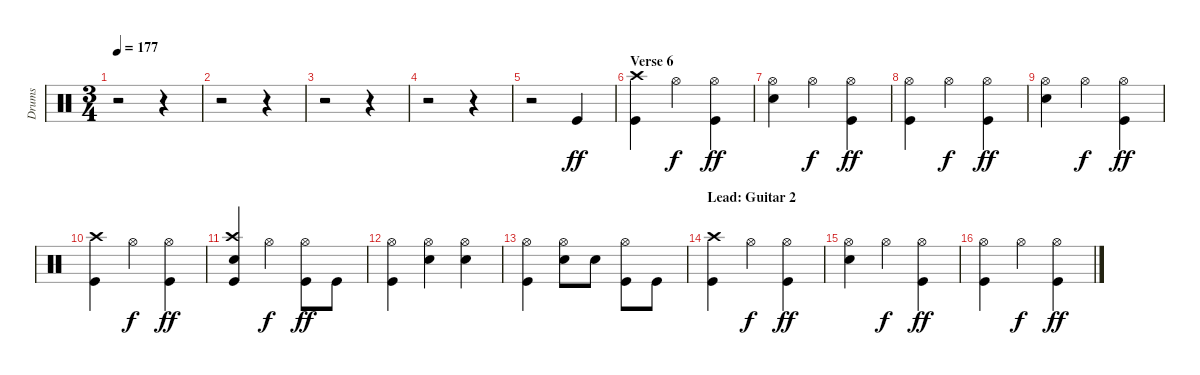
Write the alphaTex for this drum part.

\track ("Drums" "Drums") {instrument percussion}
\staff {score}
\articulation defaults
\ts (3 4)
\tempo 177
\clef neutral
\ks c
r.2{dy pp} r.4 |
r.2 r.4 |
r.2 r.4 |
r.2 r.4 |
r.2 "Kick (hit)".4{dy ff} |
\section ("" "Verse 6")
("Crash high (hit)" "Kick (hit)").4 "Hi-Hat (open)".4{dy f} ("Hi-Hat (open)" "Kick (hit)").4{dy ff} |
("Hi-Hat (open)" "Electric Snare (hit)").4 "Hi-Hat (open)".4{dy f} ("Hi-Hat (open)" "Kick (hit)").4{dy ff} |
("Hi-Hat (open)" "Kick (hit)").4 "Hi-Hat (open)".4{dy f} ("Hi-Hat (open)" "Kick (hit)").4{dy ff} |
("Hi-Hat (open)" "Electric Snare (hit)").4 "Hi-Hat (open)".4{dy f} ("Hi-Hat (open)" "Kick (hit)").4{dy ff} |
("Crash high (hit)" "Kick (hit)").4 "Hi-Hat (open)".4{dy f} ("Hi-Hat (open)" "Kick (hit)").4{dy ff} |
("Crash high (hit)" "Electric Snare (hit)" "Kick (hit)").4 "Hi-Hat (open)".4{dy f} ("Hi-Hat (open)" "Kick (hit)").8{dy ff} "Kick (hit)".8 |
("Hi-Hat (open)" "Kick (hit)").4 ("Hi-Hat (open)" "Electric Snare (hit)").4 ("Hi-Hat (open)" "Electric Snare (hit)").4 |
("Hi-Hat (open)" "Kick (hit)").4 ("Hi-Hat (open)" "Electric Snare (hit)").8 "Electric Snare (hit)".8 ("Hi-Hat (open)" "Kick (hit)").8 "Kick (hit)".8 |
\section ("" "Lead: Guitar 2")
("Crash high (hit)" "Kick (hit)").4 "Hi-Hat (open)".4{dy f} ("Hi-Hat (open)" "Kick (hit)").4{dy ff} |
("Hi-Hat (open)" "Electric Snare (hit)").4 "Hi-Hat (open)".4{dy f} ("Hi-Hat (open)" "Kick (hit)").4{dy ff} |
("Hi-Hat (open)" "Kick (hit)").4 "Hi-Hat (open)".4{dy f} ("Hi-Hat (open)" "Kick (hit)").4{dy ff}
